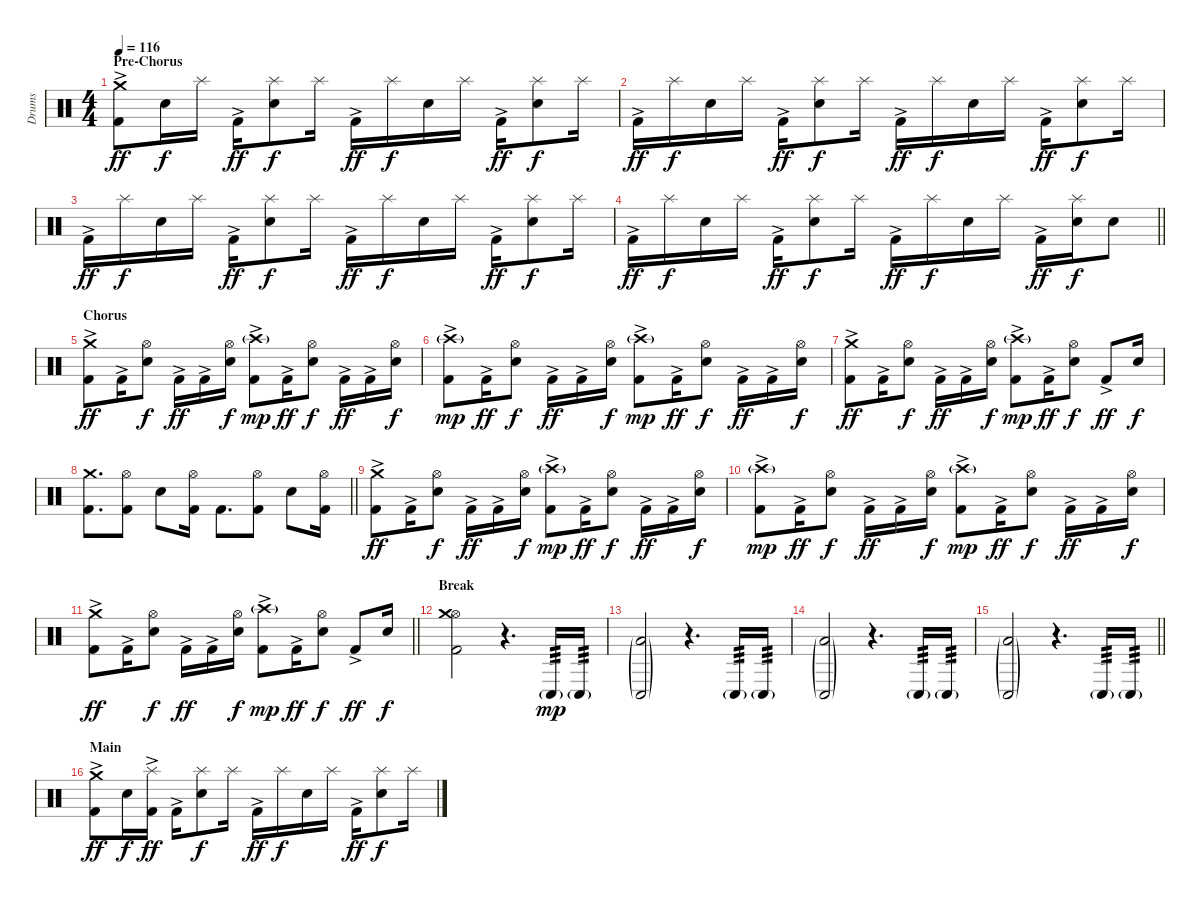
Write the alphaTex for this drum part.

\track ("Drums" "Drums") {instrument percussion}
\staff {score}
\articulation defaults
\ts (4 4)
\section ("" "Pre-Chorus")
\tempo 116
\clef neutral
\ks c
("Kick (hit) 2"{ac} "Crash medium (hit)").8{dy ff} "Snare (hit) 2".16{dy f} "Splash (hit)".16 "Kick (hit) 2"{ac}.16{dy ff} ("Snare (hit) 2" "Splash (hit)").8{dy f} "Splash (hit)".16 "Kick (hit) 2"{ac}.16{dy ff} "Splash (hit)".16{dy f} "Snare (hit) 2".16 "Splash (hit)".16 "Kick (hit) 2"{ac}.16{dy ff} ("Snare (hit) 2" "Splash (hit)").8{dy f} "Splash (hit)".16 |
"Kick (hit) 2"{ac}.16{dy ff} "Splash (hit)".16{dy f} "Snare (hit) 2".16 "Splash (hit)".16 "Kick (hit) 2"{ac}.16{dy ff} ("Snare (hit) 2" "Splash (hit)").8{dy f} "Splash (hit)".16 "Kick (hit) 2"{ac}.16{dy ff} "Splash (hit)".16{dy f} "Snare (hit) 2".16 "Splash (hit)".16 "Kick (hit) 2"{ac}.16{dy ff} ("Snare (hit) 2" "Splash (hit)").8{dy f} "Splash (hit)".16 |
"Kick (hit) 2"{ac}.16{dy ff} "Splash (hit)".16{dy f} "Snare (hit) 2".16 "Splash (hit)".16 "Kick (hit) 2"{ac}.16{dy ff} ("Snare (hit) 2" "Splash (hit)").8{dy f} "Splash (hit)".16 "Kick (hit) 2"{ac}.16{dy ff} "Splash (hit)".16{dy f} "Snare (hit) 2".16 "Splash (hit)".16 "Kick (hit) 2"{ac}.16{dy ff} ("Snare (hit) 2" "Splash (hit)").8{dy f} "Splash (hit)".16 |
\barLineRight lightlight "Kick (hit) 2"{ac}.16{dy ff} "Splash (hit)".16{dy f} "Snare (hit) 2".16 "Splash (hit)".16 "Kick (hit) 2"{ac}.16{dy ff}
("Snare (hit) 2" "Splash (hit)").8{dy f} "Splash (hit)".16 "Kick (hit) 2"{ac}.16{dy ff} "Splash (hit)".16{dy f} "Snare (hit) 2".16 "Splash (hit)".16 "Kick (hit) 2"{ac}.16{dy ff} ("Snare (hit) 2" "Splash (hit)").16{dy f} "Snare (hit) 2".8 |
\section ("" "Chorus")
("Kick (hit) 2"{ac} "Crash medium (hit)").8{dy ff} "Kick (hit) 2"{ac}.16 ("Snare (hit) 2" "Hi-Hat (open)").8{dy f} "Kick (hit) 2"{ac}.16{dy ff} "Kick (hit) 2"{ac}.16 ("Snare (hit) 2" "Hi-Hat (open)").16{dy f} ("Kick (hit) 2"{ac} "Crash high (hit)"{g}).8{dy mp} "Kick (hit) 2"{ac}.16{dy ff} ("Snare (hit) 2" "Hi-Hat (open)").8{dy f} "Kick (hit) 2"{ac}.16{dy ff} "Kick (hit) 2"{ac}.16 ("Snare (hit) 2" "Hi-Hat (open)").16{dy f} |
("Kick (hit) 2"{ac} "Crash high (hit)"{g}).8{dy mp} "Kick (hit) 2"{ac}.16{dy ff} ("Snare (hit) 2" "Hi-Hat (open)").8{dy f} "Kick (hit) 2"{ac}.16{dy ff} "Kick (hit) 2"{ac}.16 ("Snare (hit) 2" "Hi-Hat (open)").16{dy f} ("Kick (hit) 2"{ac} "Crash high (hit)"{g}).8{dy mp} "Kick (hit) 2"{ac}.16{dy ff} ("Snare (hit) 2" "Hi-Hat (open)").8{dy f} "Kick (hit) 2"{ac}.16{dy ff} "Kick (hit) 2"{ac}.16 ("Snare (hit) 2" "Hi-Hat (open)").16{dy f} |
("Kick (hit) 2"{ac} "Crash medium (hit)").8{dy ff} "Kick (hit) 2"{ac}.16 ("Snare (hit) 2" "Hi-Hat (open)").8{dy f} "Kick (hit) 2"{ac}.16{dy ff} "Kick (hit) 2"{ac}.16 ("Snare (hit) 2" "Hi-Hat (open)").16{dy f} ("Kick (hit) 2"{ac} "Crash high (hit)"{g}).8{dy mp} "Kick (hit) 2"{ac}.16{dy ff} ("Snare (hit) 2" "Hi-Hat (open)").8{dy f} "Kick (hit) 2"{ac}.8{dy ff} "Snare (hit) 2".16{dy f} |
\barLineRight lightlight
("Kick (hit) 2" "Crash medium (hit)").8{d} ("Kick (hit) 2" "Hi-Hat (open)").8 "Snare (hit) 2".8 ("Kick (hit) 2" "Hi-Hat (open)").16 "Kick (hit) 2".8{d} ("Kick (hit) 2" "Hi-Hat (open)").8 "Snare (hit) 2".8 ("Kick (hit) 2" "Hi-Hat (open)").16 |
\section ("" "")
("Kick (hit) 2"{ac} "Crash medium (hit)").8{dy ff} "Kick (hit) 2"{ac}.16 ("Snare (hit) 2" "Hi-Hat (open)").8{dy f} "Kick (hit) 2"{ac}.16{dy ff} "Kick (hit) 2"{ac}.16 ("Snare (hit) 2" "Hi-Hat (open)").16{dy f} ("Kick (hit) 2"{ac} "Crash high (hit)"{g}).8{dy mp} "Kick (hit) 2"{ac}.16{dy ff} ("Snare (hit) 2" "Hi-Hat (open)").8{dy f} "Kick (hit) 2"{ac}.16{dy ff} "Kick (hit) 2"{ac}.16 ("Snare (hit) 2" "Hi-Hat (open)").16{dy f} |
("Kick (hit) 2"{ac} "Crash high (hit)"{g}).8{dy mp} "Kick (hit) 2"{ac}.16{dy ff} ("Snare (hit) 2" "Hi-Hat (open)").8{dy f} "Kick (hit) 2"{ac}.16{dy ff} "Kick (hit) 2"{ac}.16 ("Snare (hit) 2" "Hi-Hat (open)").16{dy f} ("Kick (hit) 2"{ac} "Crash high (hit)"{g}).8{dy mp} "Kick (hit) 2"{ac}.16{dy ff} ("Snare (hit) 2" "Hi-Hat (open)").8{dy f} "Kick (hit) 2"{ac}.16{dy ff} "Kick (hit) 2"{ac}.16 ("Snare (hit) 2" "Hi-Hat (open)").16{dy f} |
\barLineRight lightlight
("Kick (hit) 2"{ac} "Crash medium (hit)").8{dy ff} "Kick (hit) 2"{ac}.16 ("Snare (hit) 2" "Hi-Hat (open)").8{dy f} "Kick (hit) 2"{ac}.16{dy ff} "Kick (hit) 2"{ac}.16 ("Snare (hit) 2" "Hi-Hat (open)").16{dy f} ("Kick (hit) 2"{ac} "Crash high (hit)"{g}).8{dy mp} "Kick (hit) 2"{ac}.16{dy ff} ("Snare (hit) 2" "Hi-Hat (open)").8{dy f} "Kick (hit) 2"{ac}.8{dy ff} "Snare (hit) 2".16{dy f} |
\section ("" "Break")
("Kick (hit) 2" "Hi-Hat (open)" "Crash medium (hit)").2 r.4{d} "Conga low (hit)"{g}.16{tp 3 dy mp} "Conga low (hit)"{g}.16{tp 3} |
("Conga low (hit)"{g} "Low Floor Tom (hit)"{g}).2 r.4{d} "Conga low (hit)"{g}.16{tp 3} "Conga low (hit)"{g}.16{tp 3} |
("Conga low (hit)"{g} "Low Floor Tom (hit)"{g}).2 r.4{d} "Conga low (hit)"{g}.16{tp 3} "Conga low (hit)"{g}.16{tp 3} |
\barLineRight lightlight
("Conga low (hit)"{g} "Low Floor Tom (hit)"{g}).2 r.4{d} "Conga low (hit)"{g}.16{tp 3} "Conga low (hit)"{g}.16{tp 3} |
\section ("" "Main")
("Kick (hit) 2"{ac} "Crash medium (hit)").8{dy ff} "Snare (hit) 2".16{dy f} ("Kick (hit) 2"{ac} "Splash (hit)").16{dy ff} "Kick (hit) 2"{ac}.16 ("Snare (hit) 2" "Splash (hit)").8{dy f} "Splash (hit)".16 "Kick (hit) 2"{ac}.16{dy ff} "Splash (hit)".16{dy f} "Snare (hit) 2".16 "Splash (hit)".16 "Kick (hit) 2"{ac}.16{dy ff} ("Snare (hit) 2" "Splash (hit)").8{dy f} "Splash (hit)".16
